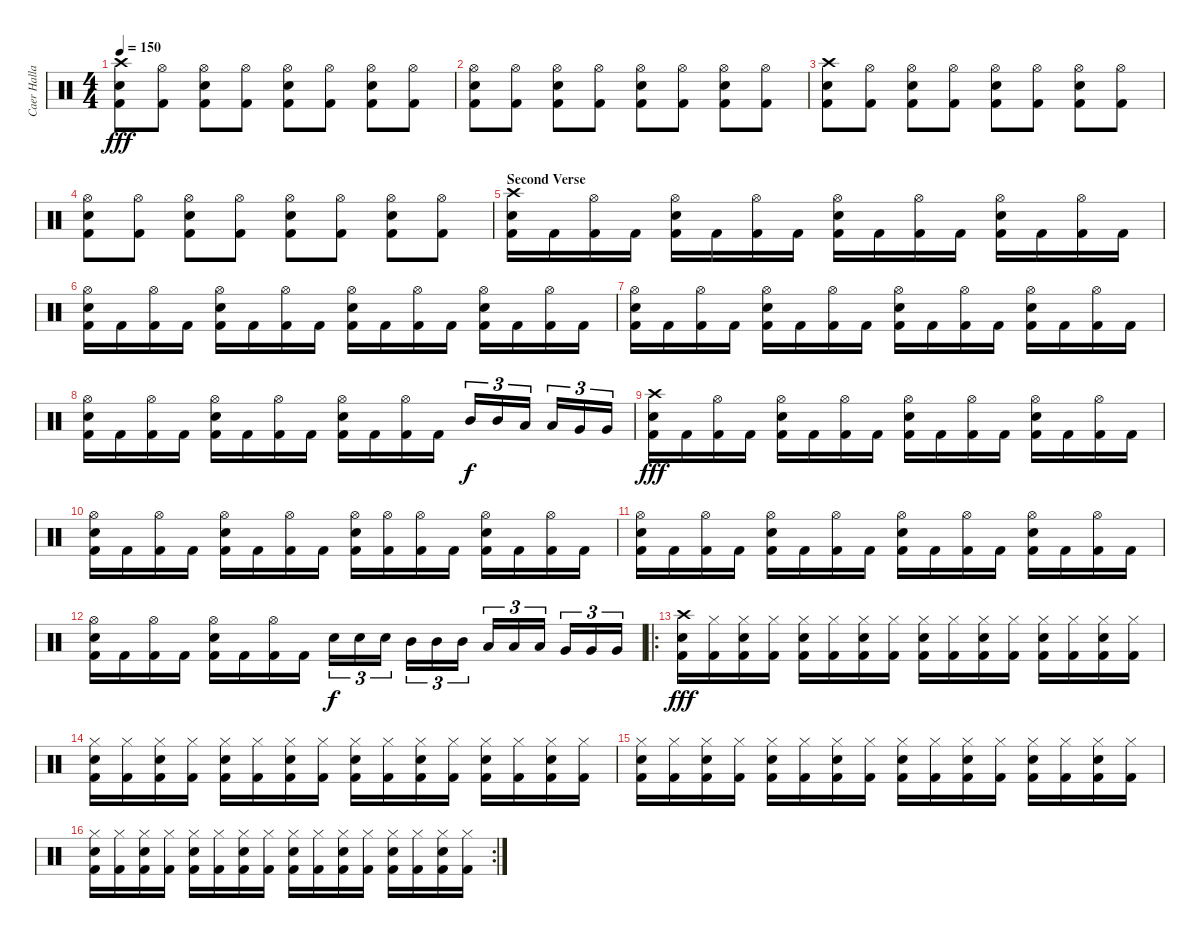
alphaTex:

\track ("Caer Hallam Generis" "Caer Halla") {instrument percussion}
\staff {score}
\articulation defaults
\ts (4 4)
\tempo 150
\clef neutral
\ks c
("Crash high (hit)" "Snare (hit) 2" "Kick (hit) 2").8{dy fff} ("Hi-Hat (open)" "Kick (hit) 2").8 ("Hi-Hat (open)" "Snare (hit) 2" "Kick (hit) 2").8 ("Hi-Hat (open)" "Kick (hit) 2").8 ("Hi-Hat (open)" "Snare (hit) 2" "Kick (hit) 2").8 ("Hi-Hat (open)" "Kick (hit) 2").8 ("Hi-Hat (open)" "Snare (hit) 2" "Kick (hit) 2").8 ("Hi-Hat (open)" "Kick (hit) 2").8 |
("Hi-Hat (open)" "Snare (hit) 2" "Kick (hit) 2").8 ("Hi-Hat (open)" "Kick (hit) 2").8 ("Hi-Hat (open)" "Snare (hit) 2" "Kick (hit) 2").8 ("Hi-Hat (open)" "Kick (hit) 2").8 ("Hi-Hat (open)" "Snare (hit) 2" "Kick (hit) 2").8 ("Hi-Hat (open)" "Kick (hit) 2").8 ("Hi-Hat (open)" "Snare (hit) 2" "Kick (hit) 2").8 ("Hi-Hat (open)" "Kick (hit) 2").8 |
("Crash high (hit)" "Snare (hit) 2" "Kick (hit) 2").8 ("Hi-Hat (open)" "Kick (hit) 2").8 ("Hi-Hat (open)" "Snare (hit) 2" "Kick (hit) 2").8 ("Hi-Hat (open)" "Kick (hit) 2").8 ("Hi-Hat (open)" "Snare (hit) 2" "Kick (hit) 2").8 ("Hi-Hat (open)" "Kick (hit) 2").8 ("Hi-Hat (open)" "Snare (hit) 2" "Kick (hit) 2").8 ("Hi-Hat (open)" "Kick (hit) 2").8 |
("Hi-Hat (open)" "Snare (hit) 2" "Kick (hit) 2").8 ("Hi-Hat (open)" "Kick (hit) 2").8 ("Hi-Hat (open)" "Snare (hit) 2" "Kick (hit) 2").8 ("Hi-Hat (open)" "Kick (hit) 2").8 ("Hi-Hat (open)" "Snare (hit) 2" "Kick (hit) 2").8 ("Hi-Hat (open)" "Kick (hit) 2").8 ("Hi-Hat (open)" "Snare (hit) 2" "Kick (hit) 2").8 ("Hi-Hat (open)" "Kick (hit) 2").8 |
\section ("" "Second Verse")
("Crash high (hit)" "Snare (hit) 2" "Kick (hit) 2").16 "Kick (hit) 2".16 ("Hi-Hat (open)" "Kick (hit) 2").16 "Kick (hit) 2".16 ("Hi-Hat (open)" "Snare (hit) 2" "Kick (hit) 2").16 "Kick (hit) 2".16 ("Hi-Hat (open)" "Kick (hit) 2").16 "Kick (hit) 2".16 ("Hi-Hat (open)" "Snare (hit) 2" "Kick (hit) 2").16 "Kick (hit) 2".16 ("Hi-Hat (open)" "Kick (hit) 2").16 "Kick (hit) 2".16 ("Hi-Hat (open)" "Snare (hit) 2" "Kick (hit) 2").16 "Kick (hit) 2".16 ("Hi-Hat (open)" "Kick (hit) 2").16 "Kick (hit) 2".16 |
("Hi-Hat (open)" "Snare (hit) 2" "Kick (hit) 2").16 "Kick (hit) 2".16 ("Hi-Hat (open)" "Kick (hit) 2").16 "Kick (hit) 2".16 ("Hi-Hat (open)" "Snare (hit) 2" "Kick (hit) 2").16 "Kick (hit) 2".16 ("Hi-Hat (open)" "Kick (hit) 2").16 "Kick (hit) 2".16 ("Hi-Hat (open)" "Snare (hit) 2" "Kick (hit) 2").16 "Kick (hit) 2".16 ("Hi-Hat (open)" "Kick (hit) 2").16 "Kick (hit) 2".16 ("Hi-Hat (open)" "Snare (hit) 2" "Kick (hit) 2").16 "Kick (hit) 2".16 ("Hi-Hat (open)" "Kick (hit) 2").16 "Kick (hit) 2".16 |
("Hi-Hat (open)" "Snare (hit) 2" "Kick (hit) 2").16 "Kick (hit) 2".16 ("Hi-Hat (open)" "Kick (hit) 2").16 "Kick (hit) 2".16 ("Hi-Hat (open)" "Snare (hit) 2" "Kick (hit) 2").16 "Kick (hit) 2".16 ("Hi-Hat (open)" "Kick (hit) 2").16 "Kick (hit) 2".16 ("Hi-Hat (open)" "Snare (hit) 2" "Kick (hit) 2").16 "Kick (hit) 2".16 ("Hi-Hat (open)" "Kick (hit) 2").16 "Kick (hit) 2".16 ("Hi-Hat (open)" "Snare (hit) 2" "Kick (hit) 2").16 "Kick (hit) 2".16 ("Hi-Hat (open)" "Kick (hit) 2").16 "Kick (hit) 2".16 |
("Hi-Hat (open)" "Snare (hit) 2" "Kick (hit) 2").16 "Kick (hit) 2".16 ("Hi-Hat (open)" "Kick (hit) 2").16 "Kick (hit) 2".16 ("Hi-Hat (open)" "Snare (hit) 2" "Kick (hit) 2").16 "Kick (hit) 2".16 ("Hi-Hat (open)" "Kick (hit) 2").16 "Kick (hit) 2".16 ("Hi-Hat (open)" "Snare (hit) 2" "Kick (hit) 2").16 "Kick (hit) 2".16 ("Hi-Hat (open)" "Kick (hit) 2").16 "Kick (hit) 2".16 "Mid Tom (hit)".16{tu (3 2) dy f} "Mid Tom (hit)".16{tu (3 2)} "Low Tom (hit)".16{tu (3 2)} "Low Tom (hit)".16{tu (3 2)} "Very Low Tom (hit)".16{tu (3 2)} "Very Low Tom (hit)".16{tu (3 2)} |
("Crash high (hit)" "Snare (hit) 2" "Kick (hit) 2").16{dy fff} "Kick (hit) 2".16 ("Hi-Hat (open)" "Kick (hit) 2").16 "Kick (hit) 2".16 ("Hi-Hat (open)" "Snare (hit) 2" "Kick (hit) 2").16 "Kick (hit) 2".16 ("Hi-Hat (open)" "Kick (hit) 2").16 "Kick (hit) 2".16 ("Hi-Hat (open)" "Snare (hit) 2" "Kick (hit) 2").16 "Kick (hit) 2".16 ("Hi-Hat (open)" "Kick (hit) 2").16 "Kick (hit) 2".16 ("Hi-Hat (open)" "Snare (hit) 2" "Kick (hit) 2").16 "Kick (hit) 2".16 ("Hi-Hat (open)" "Kick (hit) 2").16 "Kick (hit) 2".16 |
("Hi-Hat (open)" "Snare (hit) 2" "Kick (hit) 2").16 "Kick (hit) 2".16 ("Hi-Hat (open)" "Kick (hit) 2").16 "Kick (hit) 2".16 ("Hi-Hat (open)" "Snare (hit) 2" "Kick (hit) 2").16 "Kick (hit) 2".16 ("Hi-Hat (open)" "Kick (hit) 2").16 "Kick (hit) 2".16 ("Hi-Hat (open)" "Snare (hit) 2" "Kick (hit) 2").16 ("Hi-Hat (open)" "Kick (hit) 2").16 ("Hi-Hat (open)" "Kick (hit) 2").16 "Kick (hit) 2".16 ("Hi-Hat (open)" "Snare (hit) 2" "Kick (hit) 2").16 "Kick (hit) 2".16 ("Hi-Hat (open)" "Kick (hit) 2").16 "Kick (hit) 2".16 |
("Hi-Hat (open)" "Snare (hit) 2" "Kick (hit) 2").16 "Kick (hit) 2".16 ("Hi-Hat (open)" "Kick (hit) 2").16 "Kick (hit) 2".16 ("Hi-Hat (open)" "Snare (hit) 2" "Kick (hit) 2").16 "Kick (hit) 2".16 ("Hi-Hat (open)" "Kick (hit) 2").16 "Kick (hit) 2".16 ("Hi-Hat (open)" "Snare (hit) 2" "Kick (hit) 2").16 "Kick (hit) 2".16 ("Hi-Hat (open)" "Kick (hit) 2").16 "Kick (hit) 2".16 ("Hi-Hat (open)" "Snare (hit) 2" "Kick (hit) 2").16 "Kick (hit) 2".16 ("Hi-Hat (open)" "Kick (hit) 2").16 "Kick (hit) 2".16 |
("Hi-Hat (open)" "Snare (hit) 2" "Kick (hit) 2").16 "Kick (hit) 2".16 ("Hi-Hat (open)" "Kick (hit) 2").16 "Kick (hit) 2".16 ("Hi-Hat (open)" "Snare (hit) 2" "Kick (hit) 2").16 "Kick (hit) 2".16 ("Hi-Hat (open)" "Kick (hit) 2").16 "Kick (hit) 2".16 "Snare (hit) 2".16{tu (3 2) dy f} "Snare (hit) 2".16{tu (3 2)} "Snare (hit) 2".16{tu (3 2)} "Mid Tom (hit)".16{tu (3 2)} "Mid Tom (hit)".16{tu (3 2)} "Mid Tom (hit)".16{tu (3 2)} "Low Tom (hit)".16{tu (3 2)} "Low Tom (hit)".16{tu (3 2)} "Low Tom (hit)".16{tu (3 2)} "Very Low Tom (hit)".16{tu (3 2)} "Very Low Tom (hit)".16{tu (3 2)} "Very Low Tom (hit)".16{tu (3 2)} |
\ro
("Crash high (hit)" "Snare (hit) 2" "Kick (hit) 2").16{dy fff} ("Hi-Hat (closed)" "Kick (hit) 2").16 ("Hi-Hat (closed)" "Snare (hit) 2" "Kick (hit) 2").16 ("Hi-Hat (closed)" "Kick (hit) 2").16 ("Hi-Hat (closed)" "Snare (hit) 2" "Kick (hit) 2").16 ("Hi-Hat (closed)" "Kick (hit) 2").16 ("Hi-Hat (closed)" "Snare (hit) 2" "Kick (hit) 2").16 ("Hi-Hat (closed)" "Kick (hit) 2").16 ("Hi-Hat (closed)" "Snare (hit) 2" "Kick (hit) 2").16 ("Hi-Hat (closed)" "Kick (hit) 2").16 ("Hi-Hat (closed)" "Snare (hit) 2" "Kick (hit) 2").16 ("Hi-Hat (closed)" "Kick (hit) 2").16 ("Hi-Hat (closed)" "Snare (hit) 2" "Kick (hit) 2").16 ("Hi-Hat (closed)" "Kick (hit) 2").16 ("Hi-Hat (closed)" "Snare (hit) 2" "Kick (hit) 2").16 ("Hi-Hat (closed)" "Kick (hit) 2").16 |
("Hi-Hat (closed)" "Snare (hit) 2" "Kick (hit) 2").16 ("Hi-Hat (closed)" "Kick (hit) 2").16 ("Hi-Hat (closed)" "Snare (hit) 2" "Kick (hit) 2").16 ("Hi-Hat (closed)" "Kick (hit) 2").16 ("Hi-Hat (closed)" "Snare (hit) 2" "Kick (hit) 2").16 ("Hi-Hat (closed)" "Kick (hit) 2").16 ("Hi-Hat (closed)" "Snare (hit) 2" "Kick (hit) 2").16 ("Hi-Hat (closed)" "Kick (hit) 2").16 ("Hi-Hat (closed)" "Snare (hit) 2" "Kick (hit) 2").16 ("Hi-Hat (closed)" "Kick (hit) 2").16 ("Hi-Hat (closed)" "Snare (hit) 2" "Kick (hit) 2").16 ("Hi-Hat (closed)" "Kick (hit) 2").16 ("Hi-Hat (closed)" "Snare (hit) 2" "Kick (hit) 2").16 ("Hi-Hat (closed)" "Kick (hit) 2").16 ("Hi-Hat (closed)" "Snare (hit) 2" "Kick (hit) 2").16 ("Hi-Hat (closed)" "Kick (hit) 2").16 |
("Hi-Hat (closed)" "Snare (hit) 2" "Kick (hit) 2").16 ("Hi-Hat (closed)" "Kick (hit) 2").16 ("Hi-Hat (closed)" "Snare (hit) 2" "Kick (hit) 2").16 ("Hi-Hat (closed)" "Kick (hit) 2").16 ("Hi-Hat (closed)" "Snare (hit) 2" "Kick (hit) 2").16 ("Hi-Hat (closed)" "Kick (hit) 2").16 ("Hi-Hat (closed)" "Snare (hit) 2" "Kick (hit) 2").16 ("Hi-Hat (closed)" "Kick (hit) 2").16 ("Hi-Hat (closed)" "Snare (hit) 2" "Kick (hit) 2").16 ("Hi-Hat (closed)" "Kick (hit) 2").16 ("Hi-Hat (closed)" "Snare (hit) 2" "Kick (hit) 2").16 ("Hi-Hat (closed)" "Kick (hit) 2").16 ("Hi-Hat (closed)" "Snare (hit) 2" "Kick (hit) 2").16 ("Hi-Hat (closed)" "Kick (hit) 2").16 ("Hi-Hat (closed)" "Snare (hit) 2" "Kick (hit) 2").16 ("Hi-Hat (closed)" "Kick (hit) 2").16 |
\rc 2
("Hi-Hat (closed)" "Snare (hit) 2" "Kick (hit) 2").16 ("Hi-Hat (closed)" "Kick (hit) 2").16 ("Hi-Hat (closed)" "Snare (hit) 2" "Kick (hit) 2").16 ("Hi-Hat (closed)" "Kick (hit) 2").16 ("Hi-Hat (closed)" "Snare (hit) 2" "Kick (hit) 2").16 ("Hi-Hat (closed)" "Kick (hit) 2").16 ("Hi-Hat (closed)" "Snare (hit) 2" "Kick (hit) 2").16 ("Hi-Hat (closed)" "Kick (hit) 2").16 ("Hi-Hat (closed)" "Snare (hit) 2" "Kick (hit) 2").16 ("Hi-Hat (closed)" "Kick (hit) 2").16 ("Hi-Hat (closed)" "Snare (hit) 2" "Kick (hit) 2").16 ("Hi-Hat (closed)" "Kick (hit) 2").16 ("Hi-Hat (closed)" "Snare (hit) 2" "Kick (hit) 2").16 ("Hi-Hat (closed)" "Kick (hit) 2").16 ("Hi-Hat (closed)" "Snare (hit) 2" "Kick (hit) 2").16 ("Hi-Hat (closed)" "Kick (hit) 2").16
